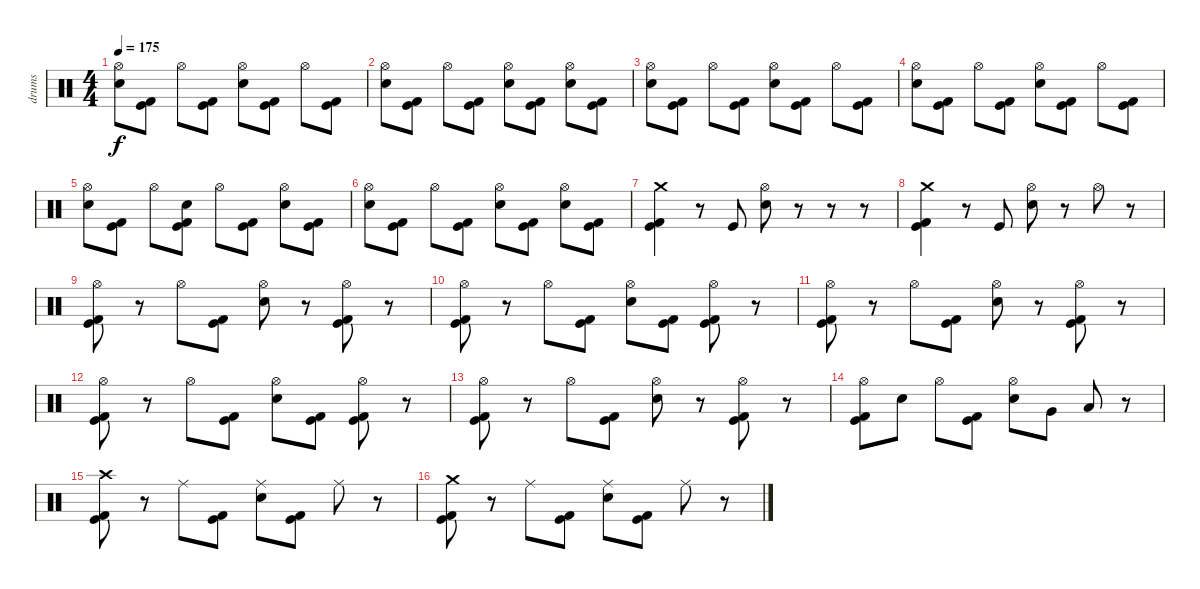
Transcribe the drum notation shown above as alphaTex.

\track ("drums" "drums") {instrument percussion}
\staff {score}
\articulation defaults
\ts (4 4)
\tempo 175
\clef neutral
\ks c
("Electric Snare (hit)" "Hi-Hat (open)").8{dy f} ("Kick (hit)" "Kick (hit) 2").8 "Hi-Hat (open)".8 ("Kick (hit)" "Kick (hit) 2").8 ("Electric Snare (hit)" "Hi-Hat (open)").8 ("Kick (hit)" "Kick (hit) 2").8 "Hi-Hat (open)".8 ("Kick (hit)" "Kick (hit) 2").8 |
("Electric Snare (hit)" "Hi-Hat (open)").8 ("Kick (hit)" "Kick (hit) 2").8 "Hi-Hat (open)".8 ("Kick (hit)" "Kick (hit) 2").8 ("Electric Snare (hit)" "Hi-Hat (open)").8 ("Kick (hit)" "Kick (hit) 2").8 ("Electric Snare (hit)" "Hi-Hat (open)").8 ("Kick (hit)" "Kick (hit) 2").8 |
("Electric Snare (hit)" "Hi-Hat (open)").8 ("Kick (hit)" "Kick (hit) 2").8 "Hi-Hat (open)".8 ("Kick (hit)" "Kick (hit) 2").8 ("Electric Snare (hit)" "Hi-Hat (open)").8 ("Kick (hit)" "Kick (hit) 2").8 "Hi-Hat (open)".8 ("Kick (hit)" "Kick (hit) 2").8 |
("Electric Snare (hit)" "Hi-Hat (open)").8 ("Kick (hit)" "Kick (hit) 2").8 "Hi-Hat (open)".8 ("Kick (hit)" "Kick (hit) 2").8 ("Electric Snare (hit)" "Hi-Hat (open)").8 ("Kick (hit)" "Kick (hit) 2").8 "Hi-Hat (open)".8 ("Kick (hit)" "Kick (hit) 2").8 |
("Electric Snare (hit)" "Hi-Hat (open)").8 ("Kick (hit)" "Kick (hit) 2").8 "Hi-Hat (open)".8 ("Kick (hit)" "Kick (hit) 2" "Electric Snare (hit)").8 "Hi-Hat (open)".8 ("Kick (hit)" "Kick (hit) 2").8 ("Electric Snare (hit)" "Hi-Hat (open)").8 ("Kick (hit)" "Kick (hit) 2").8 |
("Electric Snare (hit)" "Hi-Hat (open)").8 ("Kick (hit)" "Kick (hit) 2").8 "Hi-Hat (open)".8 ("Kick (hit)" "Kick (hit) 2").8 ("Electric Snare (hit)" "Hi-Hat (open)").8 ("Kick (hit)" "Kick (hit) 2").8 ("Electric Snare (hit)" "Hi-Hat (open)").8 ("Kick (hit)" "Kick (hit) 2").8 |
("Kick (hit)" "Kick (hit) 2" "Crash medium (hit)").4 r.8 "Kick (hit)".8 ("Electric Snare (hit)" "Hi-Hat (open)").8 r.8 r.8 r.8 |
("Kick (hit)" "Kick (hit) 2" "Crash medium (hit)").4 r.8 "Kick (hit)".8 ("Electric Snare (hit)" "Hi-Hat (open)").8 r.8 "Hi-Hat (open)".8 r.8 |
("Kick (hit)" "Kick (hit) 2" "Hi-Hat (open)").8 r.8 "Hi-Hat (open)".8 ("Kick (hit)" "Kick (hit) 2").8 ("Electric Snare (hit)" "Hi-Hat (open)").8 r.8 ("Kick (hit)" "Kick (hit) 2" "Hi-Hat (open)").8 r.8 |
("Kick (hit)" "Kick (hit) 2" "Hi-Hat (open)").8 r.8 "Hi-Hat (open)".8 ("Kick (hit)" "Kick (hit) 2").8 ("Electric Snare (hit)" "Hi-Hat (open)").8 ("Kick (hit)" "Kick (hit) 2").8 ("Kick (hit)" "Kick (hit) 2" "Hi-Hat (open)").8 r.8 |
("Kick (hit)" "Kick (hit) 2" "Hi-Hat (open)").8 r.8 "Hi-Hat (open)".8 ("Kick (hit)" "Kick (hit) 2").8 ("Electric Snare (hit)" "Hi-Hat (open)").8 r.8 ("Kick (hit)" "Kick (hit) 2" "Hi-Hat (open)").8 r.8 |
("Kick (hit)" "Kick (hit) 2" "Hi-Hat (open)").8 r.8 "Hi-Hat (open)".8 ("Kick (hit)" "Kick (hit) 2").8 ("Electric Snare (hit)" "Hi-Hat (open)").8 ("Kick (hit)" "Kick (hit) 2").8 ("Kick (hit)" "Kick (hit) 2" "Hi-Hat (open)").8 r.8 |
("Kick (hit)" "Kick (hit) 2" "Hi-Hat (open)").8 r.8 "Hi-Hat (open)".8 ("Kick (hit)" "Kick (hit) 2").8 ("Electric Snare (hit)" "Hi-Hat (open)").8 r.8 ("Kick (hit)" "Kick (hit) 2" "Hi-Hat (open)").8 r.8 |
("Kick (hit)" "Kick (hit) 2" "Hi-Hat (open)").8 "Electric Snare (hit)".8 "Hi-Hat (open)".8 ("Kick (hit)" "Kick (hit) 2").8 ("Electric Snare (hit)" "Hi-Hat (open)").8 "Very Low Tom (hit)".8 "Low Floor Tom (hit)".8 r.8 |
("Kick (hit)" "Kick (hit) 2" "Crash high (hit)").8 r.8 "Ride (middle)".8 ("Kick (hit)" "Kick (hit) 2").8 ("Electric Snare (hit)" "Ride (middle)").8 ("Kick (hit)" "Kick (hit) 2").8 "Ride (middle)".8 r.8 |
("Kick (hit)" "Kick (hit) 2" "Crash medium (hit)").8 r.8 "Ride (middle)".8 ("Kick (hit)" "Kick (hit) 2").8 ("Electric Snare (hit)" "Ride (middle)").8 ("Kick (hit)" "Kick (hit) 2").8 "Ride (middle)".8 r.8
